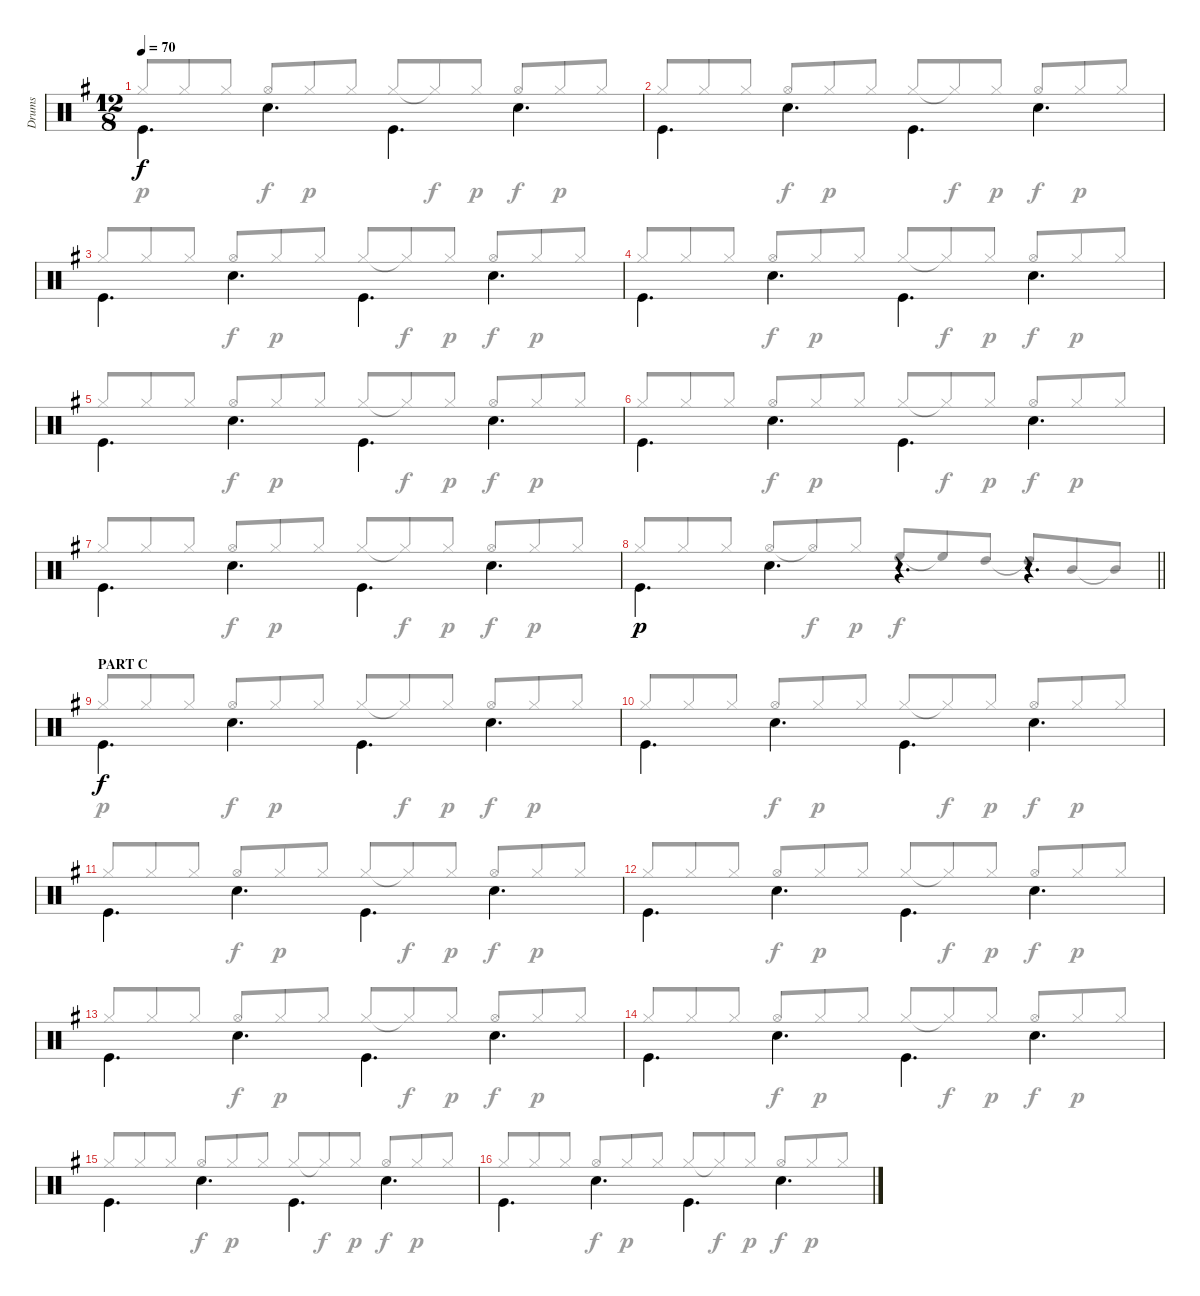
\track ("Drums" "Drums") {instrument percussion}
\staff {score}
\articulation defaults
\voice
\ts (12 8)
\tempo 70
\clef neutral
\ks eminor "Kick (hit)".4{d dy f beam Down} "Snare (hit) 2".4{d beam Down} "Kick (hit)".4{d beam Down} "Snare (hit) 2".4{d beam Down}
|
"Kick (hit)".4{d beam Down} "Snare (hit) 2".4{d beam Down} "Kick (hit)".4{d beam Down} "Snare (hit) 2".4{d beam Down} |
"Kick (hit)".4{d beam Down} "Snare (hit) 2".4{d beam Down} "Kick (hit)".4{d beam Down} "Snare (hit) 2".4{d beam Down} |
"Kick (hit)".4{d beam Down} "Snare (hit) 2".4{d beam Down} "Kick (hit)".4{d beam Down} "Snare (hit) 2".4{d beam Down} |
"Kick (hit)".4{d beam Down} "Snare (hit) 2".4{d beam Down} "Kick (hit)".4{d beam Down} "Snare (hit) 2".4{d beam Down} |
"Kick (hit)".4{d beam Down} "Snare (hit) 2".4{d beam Down} "Kick (hit)".4{d beam Down} "Snare (hit) 2".4{d beam Down} |
"Kick (hit)".4{d beam Down} "Snare (hit) 2".4{d beam Down} "Kick (hit)".4{d beam Down} "Snare (hit) 2".4{d beam Down} |
\barLineRight lightlight "Kick (hit)".4{d dy p beam Down} "Snare (hit) 2".4{d beam Down}
r.4{d} r.4{d} |
\section ("" "PART C")
"Kick (hit)".4{d dy f beam Down} "Snare (hit) 2".4{d beam Down} "Kick (hit)".4{d beam Down} "Snare (hit) 2".4{d beam Down} |
"Kick (hit)".4{d beam Down} "Snare (hit) 2".4{d beam Down} "Kick (hit)".4{d beam Down} "Snare (hit) 2".4{d beam Down} |
"Kick (hit)".4{d beam Down} "Snare (hit) 2".4{d beam Down} "Kick (hit)".4{d beam Down} "Snare (hit) 2".4{d beam Down} |
"Kick (hit)".4{d beam Down} "Snare (hit) 2".4{d beam Down} "Kick (hit)".4{d beam Down} "Snare (hit) 2".4{d beam Down} |
"Kick (hit)".4{d beam Down} "Snare (hit) 2".4{d beam Down} "Kick (hit)".4{d beam Down} "Snare (hit) 2".4{d beam Down} |
"Kick (hit)".4{d beam Down} "Snare (hit) 2".4{d beam Down} "Kick (hit)".4{d beam Down} "Snare (hit) 2".4{d beam Down} |
"Kick (hit)".4{d beam Down} "Snare (hit) 2".4{d beam Down} "Kick (hit)".4{d beam Down} "Snare (hit) 2".4{d beam Down} |
"Kick (hit)".4{d beam Down} "Snare (hit) 2".4{d beam Down} "Kick (hit)".4{d beam Down} "Snare (hit) 2".4{d beam Down}
\voice
\clef neutral
\ottava regular
\simile none
\ks eminor "Hi-Hat (closed)".8{dy p beam Up} "Hi-Hat (closed)".8{beam Up} "Hi-Hat (closed)".8{beam Up} "Hi-Hat (open)".8{dy f beam Up} "Hi-Hat (closed)".8{dy p beam Up} "Hi-Hat (closed)".8{beam Up} "Hi-Hat (closed)".8{beam Up} "Hi-Hat (closed)"{t}.8{dy f beam Up} "Hi-Hat (closed)".8{dy p beam Up} "Hi-Hat (open)".8{dy f beam Up} "Hi-Hat (closed)".8{dy p beam Up} "Hi-Hat (closed)".8{beam Up}
|
"Hi-Hat (closed)".8{beam Up} "Hi-Hat (closed)".8{beam Up} "Hi-Hat (closed)".8{beam Up} "Hi-Hat (open)".8{dy f beam Up} "Hi-Hat (closed)".8{dy p beam Up} "Hi-Hat (closed)".8{beam Up} "Hi-Hat (closed)".8{beam Up} "Hi-Hat (closed)"{t}.8{dy f beam Up} "Hi-Hat (closed)".8{dy p beam Up} "Hi-Hat (open)".8{dy f beam Up} "Hi-Hat (closed)".8{dy p beam Up} "Hi-Hat (closed)".8{beam Up} |
"Hi-Hat (closed)".8{beam Up} "Hi-Hat (closed)".8{beam Up} "Hi-Hat (closed)".8{beam Up} "Hi-Hat (open)".8{dy f beam Up} "Hi-Hat (closed)".8{dy p beam Up} "Hi-Hat (closed)".8{beam Up} "Hi-Hat (closed)".8{beam Up} "Hi-Hat (closed)"{t}.8{dy f beam Up} "Hi-Hat (closed)".8{dy p beam Up} "Hi-Hat (open)".8{dy f beam Up} "Hi-Hat (closed)".8{dy p beam Up} "Hi-Hat (closed)".8{beam Up} |
"Hi-Hat (closed)".8{beam Up} "Hi-Hat (closed)".8{beam Up} "Hi-Hat (closed)".8{beam Up} "Hi-Hat (open)".8{dy f beam Up} "Hi-Hat (closed)".8{dy p beam Up} "Hi-Hat (closed)".8{beam Up} "Hi-Hat (closed)".8{beam Up} "Hi-Hat (closed)"{t}.8{dy f beam Up} "Hi-Hat (closed)".8{dy p beam Up} "Hi-Hat (open)".8{dy f beam Up} "Hi-Hat (closed)".8{dy p beam Up} "Hi-Hat (closed)".8{beam Up} |
"Hi-Hat (closed)".8{beam Up} "Hi-Hat (closed)".8{beam Up} "Hi-Hat (closed)".8{beam Up} "Hi-Hat (open)".8{dy f beam Up} "Hi-Hat (closed)".8{dy p beam Up} "Hi-Hat (closed)".8{beam Up} "Hi-Hat (closed)".8{beam Up} "Hi-Hat (closed)"{t}.8{dy f beam Up} "Hi-Hat (closed)".8{dy p beam Up} "Hi-Hat (open)".8{dy f beam Up} "Hi-Hat (closed)".8{dy p beam Up} "Hi-Hat (closed)".8{beam Up} |
"Hi-Hat (closed)".8{beam Up} "Hi-Hat (closed)".8{beam Up} "Hi-Hat (closed)".8{beam Up} "Hi-Hat (open)".8{dy f beam Up} "Hi-Hat (closed)".8{dy p beam Up} "Hi-Hat (closed)".8{beam Up} "Hi-Hat (closed)".8{beam Up} "Hi-Hat (closed)"{t}.8{dy f beam Up} "Hi-Hat (closed)".8{dy p beam Up} "Hi-Hat (open)".8{dy f beam Up} "Hi-Hat (closed)".8{dy p beam Up} "Hi-Hat (closed)".8{beam Up} |
"Hi-Hat (closed)".8{beam Up} "Hi-Hat (closed)".8{beam Up} "Hi-Hat (closed)".8{beam Up} "Hi-Hat (open)".8{dy f beam Up} "Hi-Hat (closed)".8{dy p beam Up} "Hi-Hat (closed)".8{beam Up} "Hi-Hat (closed)".8{beam Up} "Hi-Hat (closed)"{t}.8{dy f beam Up} "Hi-Hat (closed)".8{dy p beam Up} "Hi-Hat (open)".8{dy f beam Up} "Hi-Hat (closed)".8{dy p beam Up} "Hi-Hat (closed)".8{beam Up} |
\barLineRight lightlight "Hi-Hat (closed)".8{beam Up} "Hi-Hat (closed)".8{beam Up} "Hi-Hat (closed)".8{beam Up} "Hi-Hat (open)".8{beam Up} "Hi-Hat (open)"{t}.8{dy f beam Up} "Hi-Hat (closed)".8{dy p beam Up} "High Floor Tom (hit)".8{dy f beam Up} "High Floor Tom (hit)"{t}.8{beam Up} "High Tom (hit)".8{beam Up} "High Tom (hit)"{t}.8{beam Up} "Mid Tom (hit)".8{beam Up} "Mid Tom (hit)"{t}.8{beam Up}
|
"Hi-Hat (closed)".8{dy p beam Up} "Hi-Hat (closed)".8{beam Up} "Hi-Hat (closed)".8{beam Up} "Hi-Hat (open)".8{dy f beam Up} "Hi-Hat (closed)".8{dy p beam Up} "Hi-Hat (closed)".8{beam Up} "Hi-Hat (closed)".8{beam Up} "Hi-Hat (closed)"{t}.8{dy f beam Up} "Hi-Hat (closed)".8{dy p beam Up} "Hi-Hat (open)".8{dy f beam Up} "Hi-Hat (closed)".8{dy p beam Up} "Hi-Hat (closed)".8{beam Up} |
"Hi-Hat (closed)".8{beam Up} "Hi-Hat (closed)".8{beam Up} "Hi-Hat (closed)".8{beam Up} "Hi-Hat (open)".8{dy f beam Up} "Hi-Hat (closed)".8{dy p beam Up} "Hi-Hat (closed)".8{beam Up} "Hi-Hat (closed)".8{beam Up} "Hi-Hat (closed)"{t}.8{dy f beam Up} "Hi-Hat (closed)".8{dy p beam Up} "Hi-Hat (open)".8{dy f beam Up} "Hi-Hat (closed)".8{dy p beam Up} "Hi-Hat (closed)".8{beam Up} |
"Hi-Hat (closed)".8{beam Up} "Hi-Hat (closed)".8{beam Up} "Hi-Hat (closed)".8{beam Up} "Hi-Hat (open)".8{dy f beam Up} "Hi-Hat (closed)".8{dy p beam Up} "Hi-Hat (closed)".8{beam Up} "Hi-Hat (closed)".8{beam Up} "Hi-Hat (closed)"{t}.8{dy f beam Up} "Hi-Hat (closed)".8{dy p beam Up} "Hi-Hat (open)".8{dy f beam Up} "Hi-Hat (closed)".8{dy p beam Up} "Hi-Hat (closed)".8{beam Up} |
"Hi-Hat (closed)".8{beam Up} "Hi-Hat (closed)".8{beam Up} "Hi-Hat (closed)".8{beam Up} "Hi-Hat (open)".8{dy f beam Up} "Hi-Hat (closed)".8{dy p beam Up} "Hi-Hat (closed)".8{beam Up} "Hi-Hat (closed)".8{beam Up} "Hi-Hat (closed)"{t}.8{dy f beam Up} "Hi-Hat (closed)".8{dy p beam Up} "Hi-Hat (open)".8{dy f beam Up} "Hi-Hat (closed)".8{dy p beam Up} "Hi-Hat (closed)".8{beam Up} |
"Hi-Hat (closed)".8{beam Up} "Hi-Hat (closed)".8{beam Up} "Hi-Hat (closed)".8{beam Up} "Hi-Hat (open)".8{dy f beam Up} "Hi-Hat (closed)".8{dy p beam Up} "Hi-Hat (closed)".8{beam Up} "Hi-Hat (closed)".8{beam Up} "Hi-Hat (closed)"{t}.8{dy f beam Up} "Hi-Hat (closed)".8{dy p beam Up} "Hi-Hat (open)".8{dy f beam Up} "Hi-Hat (closed)".8{dy p beam Up} "Hi-Hat (closed)".8{beam Up} |
"Hi-Hat (closed)".8{beam Up} "Hi-Hat (closed)".8{beam Up} "Hi-Hat (closed)".8{beam Up} "Hi-Hat (open)".8{dy f beam Up} "Hi-Hat (closed)".8{dy p beam Up} "Hi-Hat (closed)".8{beam Up} "Hi-Hat (closed)".8{beam Up} "Hi-Hat (closed)"{t}.8{dy f beam Up} "Hi-Hat (closed)".8{dy p beam Up} "Hi-Hat (open)".8{dy f beam Up} "Hi-Hat (closed)".8{dy p beam Up} "Hi-Hat (closed)".8{beam Up} |
"Hi-Hat (closed)".8{beam Up} "Hi-Hat (closed)".8{beam Up} "Hi-Hat (closed)".8{beam Up} "Hi-Hat (open)".8{dy f beam Up} "Hi-Hat (closed)".8{dy p beam Up} "Hi-Hat (closed)".8{beam Up} "Hi-Hat (closed)".8{beam Up} "Hi-Hat (closed)"{t}.8{dy f beam Up} "Hi-Hat (closed)".8{dy p beam Up} "Hi-Hat (open)".8{dy f beam Up} "Hi-Hat (closed)".8{dy p beam Up} "Hi-Hat (closed)".8{beam Up} |
"Hi-Hat (closed)".8{beam Up} "Hi-Hat (closed)".8{beam Up} "Hi-Hat (closed)".8{beam Up} "Hi-Hat (open)".8{dy f beam Up} "Hi-Hat (closed)".8{dy p beam Up} "Hi-Hat (closed)".8{beam Up} "Hi-Hat (closed)".8{beam Up} "Hi-Hat (closed)"{t}.8{dy f beam Up} "Hi-Hat (closed)".8{dy p beam Up} "Hi-Hat (open)".8{dy f beam Up} "Hi-Hat (closed)".8{dy p beam Up} "Hi-Hat (closed)".8{beam Up}
